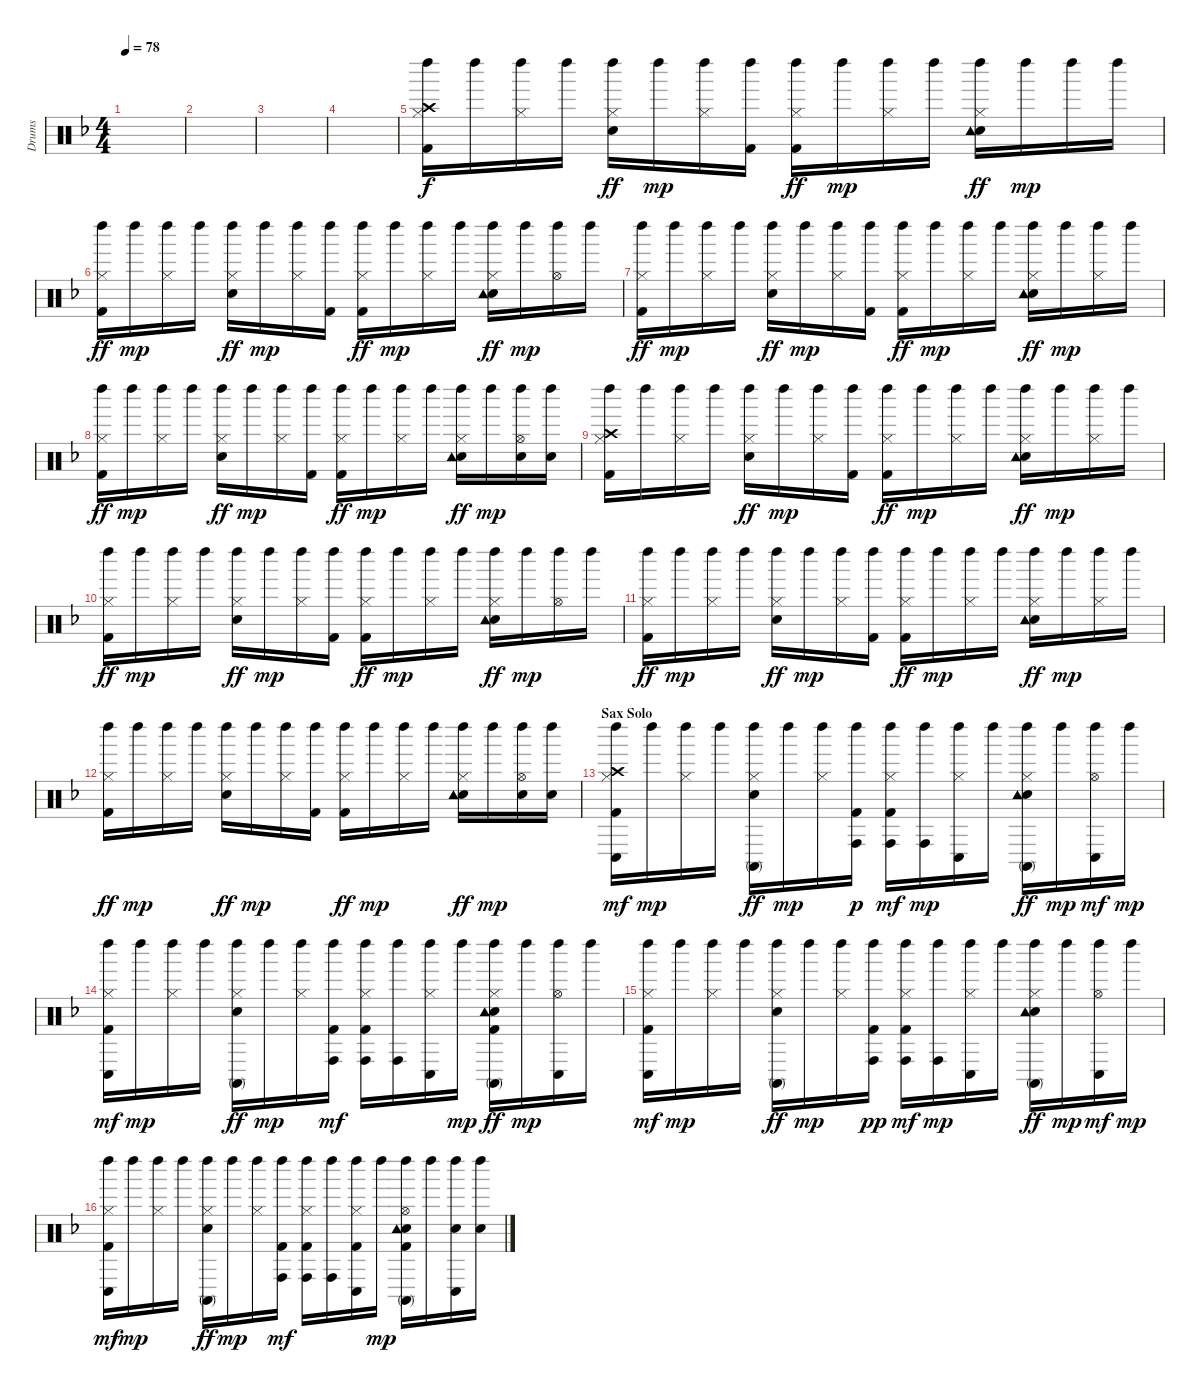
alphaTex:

\track ("Drums" "Drums") {instrument percussion}
\staff {score}
\articulation defaults
\ts (4 4)
\tempo 78
\clef neutral
\ks f
|
|
|
|
("Kick (hit) 2" "Hi-Hat (closed)" "Left Maraca (hit)" "Crash high (hit)").16 "Left Maraca (hit)".16 ("Hi-Hat (closed)" "Left Maraca (hit)").16 "Left Maraca (hit)".16 ("Snare (hit) 2" "Hi-Hat (closed)" "Left Maraca (hit)").16{dy ff} "Left Maraca (hit)".16{dy mp} ("Hi-Hat (closed)" "Left Maraca (hit)").16 ("Kick (hit) 2" "Left Maraca (hit)").16 ("Kick (hit) 2" "Hi-Hat (closed)" "Left Maraca (hit)").16{dy ff} "Left Maraca (hit)".16{dy mp} ("Hi-Hat (closed)" "Left Maraca (hit)").16 "Left Maraca (hit)".16 ("Snare (hit) 2" "Hi-Hat (closed)" "Left Maraca (hit)" "Tambourine (hit)").16{dy ff} "Left Maraca (hit)".16{dy mp} "Left Maraca (hit)".16 "Left Maraca (hit)".16 |
("Kick (hit) 2" "Hi-Hat (closed)" "Left Maraca (hit)").16{dy ff} "Left Maraca (hit)".16{dy mp} ("Hi-Hat (closed)" "Left Maraca (hit)").16 "Left Maraca (hit)".16 ("Snare (hit) 2" "Hi-Hat (closed)" "Left Maraca (hit)").16{dy ff} "Left Maraca (hit)".16{dy mp} ("Hi-Hat (closed)" "Left Maraca (hit)").16 ("Kick (hit) 2" "Left Maraca (hit)").16 ("Kick (hit) 2" "Hi-Hat (closed)" "Left Maraca (hit)").16{dy ff} "Left Maraca (hit)".16{dy mp} ("Hi-Hat (closed)" "Left Maraca (hit)").16 "Left Maraca (hit)".16 ("Snare (hit) 2" "Hi-Hat (closed)" "Left Maraca (hit)" "Tambourine (hit)").16{dy ff} "Left Maraca (hit)".16{dy mp} ("Hi-Hat (open)" "Left Maraca (hit)").16 "Left Maraca (hit)".16 |
("Kick (hit) 2" "Hi-Hat (closed)" "Left Maraca (hit)").16{dy ff} "Left Maraca (hit)".16{dy mp} ("Hi-Hat (closed)" "Left Maraca (hit)").16 "Left Maraca (hit)".16 ("Snare (hit) 2" "Hi-Hat (closed)" "Left Maraca (hit)").16{dy ff} "Left Maraca (hit)".16{dy mp} ("Hi-Hat (closed)" "Left Maraca (hit)").16 ("Kick (hit) 2" "Left Maraca (hit)").16 ("Kick (hit) 2" "Hi-Hat (closed)" "Left Maraca (hit)").16{dy ff} "Left Maraca (hit)".16{dy mp} ("Hi-Hat (closed)" "Left Maraca (hit)").16 "Left Maraca (hit)".16 ("Snare (hit) 2" "Hi-Hat (closed)" "Left Maraca (hit)" "Tambourine (hit)").16{dy ff} "Left Maraca (hit)".16{dy mp} ("Hi-Hat (closed)" "Left Maraca (hit)").16 "Left Maraca (hit)".16 |
("Kick (hit) 2" "Hi-Hat (closed)" "Left Maraca (hit)").16{dy ff} "Left Maraca (hit)".16{dy mp} ("Hi-Hat (closed)" "Left Maraca (hit)").16 "Left Maraca (hit)".16 ("Snare (hit) 2" "Hi-Hat (closed)" "Left Maraca (hit)").16{dy ff} "Left Maraca (hit)".16{dy mp} ("Hi-Hat (closed)" "Left Maraca (hit)").16 ("Kick (hit) 2" "Left Maraca (hit)").16 ("Kick (hit) 2" "Hi-Hat (closed)" "Left Maraca (hit)").16{dy ff} "Left Maraca (hit)".16{dy mp} ("Hi-Hat (closed)" "Left Maraca (hit)").16 "Left Maraca (hit)".16 ("Snare (hit) 2" "Hi-Hat (closed)" "Left Maraca (hit)" "Tambourine (hit)").16{dy ff} "Left Maraca (hit)".16{dy mp} ("Snare (hit) 2" "Hi-Hat (open)" "Left Maraca (hit)").16 ("Snare (hit) 2" "Left Maraca (hit)").16 |
("Kick (hit) 2" "Hi-Hat (closed)" "Left Maraca (hit)" "Crash high (hit)").16 "Left Maraca (hit)".16 ("Hi-Hat (closed)" "Left Maraca (hit)").16 "Left Maraca (hit)".16 ("Snare (hit) 2" "Hi-Hat (closed)" "Left Maraca (hit)").16{dy ff} "Left Maraca (hit)".16{dy mp} ("Hi-Hat (closed)" "Left Maraca (hit)").16 ("Kick (hit) 2" "Left Maraca (hit)").16 ("Kick (hit) 2" "Hi-Hat (closed)" "Left Maraca (hit)").16{dy ff} "Left Maraca (hit)".16{dy mp} ("Hi-Hat (closed)" "Left Maraca (hit)").16 "Left Maraca (hit)".16 ("Snare (hit) 2" "Hi-Hat (closed)" "Left Maraca (hit)" "Tambourine (hit)").16{dy ff} "Left Maraca (hit)".16{dy mp} ("Hi-Hat (closed)" "Left Maraca (hit)").16 "Left Maraca (hit)".16 |
("Kick (hit) 2" "Hi-Hat (closed)" "Left Maraca (hit)").16{dy ff} "Left Maraca (hit)".16{dy mp} ("Hi-Hat (closed)" "Left Maraca (hit)").16 "Left Maraca (hit)".16 ("Snare (hit) 2" "Hi-Hat (closed)" "Left Maraca (hit)").16{dy ff} "Left Maraca (hit)".16{dy mp} ("Hi-Hat (closed)" "Left Maraca (hit)").16 ("Kick (hit) 2" "Left Maraca (hit)").16 ("Kick (hit) 2" "Hi-Hat (closed)" "Left Maraca (hit)").16{dy ff} "Left Maraca (hit)".16{dy mp} ("Hi-Hat (closed)" "Left Maraca (hit)").16 "Left Maraca (hit)".16 ("Snare (hit) 2" "Hi-Hat (closed)" "Left Maraca (hit)" "Tambourine (hit)").16{dy ff} "Left Maraca (hit)".16{dy mp} ("Hi-Hat (open)" "Left Maraca (hit)").16 "Left Maraca (hit)".16 |
("Kick (hit) 2" "Hi-Hat (closed)" "Left Maraca (hit)").16{dy ff} "Left Maraca (hit)".16{dy mp} ("Hi-Hat (closed)" "Left Maraca (hit)").16 "Left Maraca (hit)".16 ("Snare (hit) 2" "Hi-Hat (closed)" "Left Maraca (hit)").16{dy ff} "Left Maraca (hit)".16{dy mp} ("Hi-Hat (closed)" "Left Maraca (hit)").16 ("Kick (hit) 2" "Left Maraca (hit)").16 ("Kick (hit) 2" "Hi-Hat (closed)" "Left Maraca (hit)").16{dy ff} "Left Maraca (hit)".16{dy mp} ("Hi-Hat (closed)" "Left Maraca (hit)").16 "Left Maraca (hit)".16 ("Snare (hit) 2" "Hi-Hat (closed)" "Left Maraca (hit)" "Tambourine (hit)").16{dy ff} "Left Maraca (hit)".16{dy mp} ("Hi-Hat (closed)" "Left Maraca (hit)").16 "Left Maraca (hit)".16 |
("Kick (hit) 2" "Hi-Hat (closed)" "Left Maraca (hit)").16{dy ff} "Left Maraca (hit)".16{dy mp} ("Hi-Hat (closed)" "Left Maraca (hit)").16 "Left Maraca (hit)".16 ("Snare (hit) 2" "Hi-Hat (closed)" "Left Maraca (hit)").16{dy ff} "Left Maraca (hit)".16{dy mp} ("Hi-Hat (closed)" "Left Maraca (hit)").16 ("Kick (hit) 2" "Left Maraca (hit)").16 ("Kick (hit) 2" "Hi-Hat (closed)" "Left Maraca (hit)").16{dy ff} "Left Maraca (hit)".16{dy mp} ("Hi-Hat (closed)" "Left Maraca (hit)").16 "Left Maraca (hit)".16 ("Snare (hit) 2" "Hi-Hat (closed)" "Left Maraca (hit)" "Tambourine (hit)").16{dy ff} "Left Maraca (hit)".16{dy mp} ("Snare (hit) 2" "Hi-Hat (open)" "Left Maraca (hit)").16 ("Snare (hit) 2" "Left Maraca (hit)").16 |
\section ("" "Sax Solo")
("Kick (hit) 2" "Hi-Hat (closed)" "Left Maraca (hit)" "Crash high (hit)" "Conga low (hit)").16{dy mf} "Left Maraca (hit)".16{dy mp} ("Hi-Hat (closed)" "Left Maraca (hit)").16 "Left Maraca (hit)".16 ("Snare (hit) 2" "Hi-Hat (closed)" "Left Maraca (hit)" "Conga high (mute)").16{dy ff} "Left Maraca (hit)".16{dy mp} ("Hi-Hat (closed)" "Left Maraca (hit)").16 ("Kick (hit) 2" "Left Maraca (hit)" "Conga high (hit)").16{dy p} ("Kick (hit) 2" "Hi-Hat (closed)" "Left Maraca (hit)" "Conga high (hit)").16{dy mf} ("Left Maraca (hit)" "Conga high (hit)").16{dy mp} ("Hi-Hat (closed)" "Left Maraca (hit)" "Conga low (hit)").16 "Left Maraca (hit)".16 ("Snare (hit) 2" "Hi-Hat (closed)" "Left Maraca (hit)" "Conga high (mute)" "Tambourine (hit)").16{dy ff} "Left Maraca (hit)".16{dy mp} ("Hi-Hat (open)" "Left Maraca (hit)" "Conga low (hit)").16{dy mf} "Left Maraca (hit)".16{dy mp} |
("Kick (hit) 2" "Hi-Hat (closed)" "Left Maraca (hit)" "Conga low (hit)").16{dy mf} "Left Maraca (hit)".16{dy mp} ("Hi-Hat (closed)" "Left Maraca (hit)").16 "Left Maraca (hit)".16 ("Snare (hit) 2" "Hi-Hat (closed)" "Left Maraca (hit)" "Conga high (mute)").16{dy ff} "Left Maraca (hit)".16{dy mp} ("Hi-Hat (closed)" "Left Maraca (hit)").16 ("Kick (hit) 2" "Left Maraca (hit)" "Conga high (hit)").16{dy mf} ("Kick (hit) 2" "Hi-Hat (closed)" "Left Maraca (hit)" "Conga high (hit)").16 ("Left Maraca (hit)" "Conga high (hit)").16 ("Hi-Hat (closed)" "Left Maraca (hit)" "Conga low (hit)").16 "Left Maraca (hit)".16{dy mp} ("Kick (hit) 2" "Snare (hit) 2" "Hi-Hat (closed)" "Left Maraca (hit)" "Conga high (mute)" "Tambourine (hit)").16{dy ff} "Left Maraca (hit)".16{dy mp} ("Hi-Hat (open)" "Left Maraca (hit)" "Conga low (hit)").16 "Left Maraca (hit)".16 |
("Kick (hit) 2" "Hi-Hat (closed)" "Left Maraca (hit)" "Conga low (hit)").16{dy mf} "Left Maraca (hit)".16{dy mp} ("Hi-Hat (closed)" "Left Maraca (hit)").16 "Left Maraca (hit)".16 ("Snare (hit) 2" "Hi-Hat (closed)" "Left Maraca (hit)" "Conga high (mute)").16{dy ff} "Left Maraca (hit)".16{dy mp} ("Hi-Hat (closed)" "Left Maraca (hit)").16 ("Kick (hit) 2" "Left Maraca (hit)" "Conga high (hit)").16{dy pp} ("Kick (hit) 2" "Hi-Hat (closed)" "Left Maraca (hit)" "Conga high (hit)").16{dy mf} ("Left Maraca (hit)" "Conga high (hit)").16{dy mp} ("Hi-Hat (closed)" "Left Maraca (hit)" "Conga low (hit)").16 "Left Maraca (hit)".16 ("Snare (hit) 2" "Hi-Hat (closed)" "Left Maraca (hit)" "Conga high (mute)" "Tambourine (hit)").16{dy ff} "Left Maraca (hit)".16{dy mp} ("Hi-Hat (open)" "Left Maraca (hit)" "Conga low (hit)").16{dy mf} "Left Maraca (hit)".16{dy mp} |
("Kick (hit) 2" "Hi-Hat (closed)" "Left Maraca (hit)" "Conga low (hit)").16{dy mf} "Left Maraca (hit)".16{dy mp} ("Hi-Hat (closed)" "Left Maraca (hit)").16 "Left Maraca (hit)".16 ("Snare (hit) 2" "Hi-Hat (closed)" "Left Maraca (hit)" "Conga high (mute)").16{dy ff} "Left Maraca (hit)".16{dy mp} ("Hi-Hat (closed)" "Left Maraca (hit)").16 ("Kick (hit) 2" "Left Maraca (hit)" "Conga high (hit)").16{dy mf} ("Kick (hit) 2" "Hi-Hat (closed)" "Left Maraca (hit)" "Conga high (hit)").16 ("Left Maraca (hit)" "Conga high (hit)").16 ("Kick (hit) 2" "Hi-Hat (closed)" "Left Maraca (hit)" "Conga low (hit)").16 "Left Maraca (hit)".16{dy mp} ("Kick (hit) 2" "Snare (hit) 2" "Hi-Hat (open)" "Left Maraca (hit)" "Conga high (mute)" "Tambourine (hit)").16 "Left Maraca (hit)".16 ("Snare (hit) 2" "Left Maraca (hit)" "Conga low (hit)").16 ("Snare (hit) 2" "Left Maraca (hit)").16
